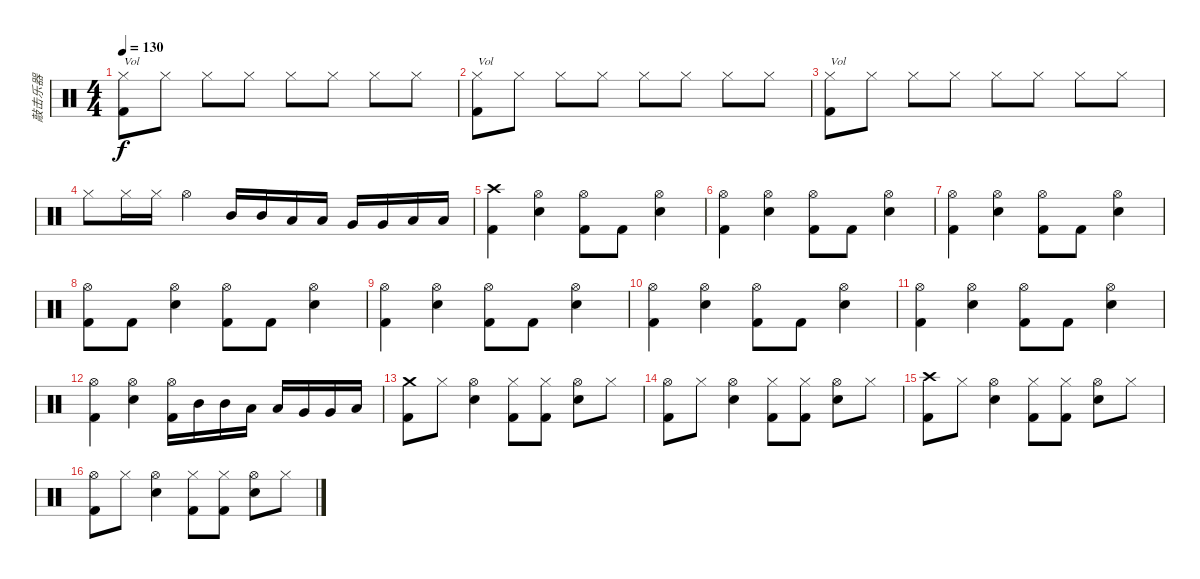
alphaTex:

\track ("敲击乐器" "敲击乐器") {instrument percussion}
\staff {score}
\articulation defaults
\ts (4 4)
\tempo 130
\clef neutral
\ks c
("Hi-Hat (closed)" "Kick (hit) 2").8{txt "Vol" dy f} "Hi-Hat (closed)".8 "Hi-Hat (closed)".8 "Hi-Hat (closed)".8 "Hi-Hat (closed)".8 "Hi-Hat (closed)".8 "Hi-Hat (closed)".8 "Hi-Hat (closed)".8 |
("Hi-Hat (closed)" "Kick (hit) 2").8{txt "Vol"} "Hi-Hat (closed)".8 "Hi-Hat (closed)".8 "Hi-Hat (closed)".8 "Hi-Hat (closed)".8 "Hi-Hat (closed)".8 "Hi-Hat (closed)".8 "Hi-Hat (closed)".8 |
("Hi-Hat (closed)" "Kick (hit) 2").8{txt "Vol"} "Hi-Hat (closed)".8 "Hi-Hat (closed)".8 "Hi-Hat (closed)".8 "Hi-Hat (closed)".8 "Hi-Hat (closed)".8 "Hi-Hat (closed)".8 "Hi-Hat (closed)".8 |
"Hi-Hat (closed)".8 "Hi-Hat (closed)".16 "Hi-Hat (closed)".16 "Hi-Hat (open)".4 "Mid Tom (hit)".16 "Mid Tom (hit)".16 "Low Tom (hit)".16 "Low Tom (hit)".16 "Very Low Tom (hit)".16 "Very Low Tom (hit)".16 "Low Floor Tom (hit)".16 "Low Floor Tom (hit)".16 |
("Crash high (hit)" "Kick (hit) 2").4 ("Electric Snare (hit)" "Hi-Hat (open)").4 ("Hi-Hat (open)" "Kick (hit) 2").8 "Kick (hit) 2".8 ("Electric Snare (hit)" "Hi-Hat (open)").4 |
("Hi-Hat (open)" "Kick (hit) 2").4 ("Electric Snare (hit)" "Hi-Hat (open)").4 ("Hi-Hat (open)" "Kick (hit) 2").8 "Kick (hit) 2".8 ("Electric Snare (hit)" "Hi-Hat (open)").4 |
("Hi-Hat (open)" "Kick (hit) 2").4 ("Electric Snare (hit)" "Hi-Hat (open)").4 ("Hi-Hat (open)" "Kick (hit) 2").8 "Kick (hit) 2".8 ("Electric Snare (hit)" "Hi-Hat (open)").4 |
("Hi-Hat (open)" "Kick (hit) 2").8 "Kick (hit) 2".8 ("Hi-Hat (open)" "Electric Snare (hit)").4 ("Hi-Hat (open)" "Kick (hit) 2").8 "Kick (hit) 2".8 ("Hi-Hat (open)" "Electric Snare (hit)").4 |
("Hi-Hat (open)" "Kick (hit) 2").4 ("Electric Snare (hit)" "Hi-Hat (open)").4 ("Hi-Hat (open)" "Kick (hit) 2").8 "Kick (hit) 2".8 ("Electric Snare (hit)" "Hi-Hat (open)").4 |
("Hi-Hat (open)" "Kick (hit) 2").4 ("Electric Snare (hit)" "Hi-Hat (open)").4 ("Hi-Hat (open)" "Kick (hit) 2").8 "Kick (hit) 2".8 ("Electric Snare (hit)" "Hi-Hat (open)").4 |
("Hi-Hat (open)" "Kick (hit) 2").4 ("Electric Snare (hit)" "Hi-Hat (open)").4 ("Hi-Hat (open)" "Kick (hit) 2").8 "Kick (hit) 2".8 ("Electric Snare (hit)" "Hi-Hat (open)").4 |
("Hi-Hat (open)" "Kick (hit) 2").4 ("Electric Snare (hit)" "Hi-Hat (open)").4 ("Hi-Hat (open)" "Kick (hit) 2").16 "Mid Tom (hit)".16 "Mid Tom (hit)".16 "Low Tom (hit)".16 "Low Tom (hit)".16 "Very Low Tom (hit)".16 "Very Low Tom (hit)".16 "Low Floor Tom (hit)".16 |
("Crash medium (hit)" "Kick (hit) 2").8 "Hi-Hat (closed)".8 ("Electric Snare (hit)" "Hi-Hat (open)").4 ("Hi-Hat (closed)" "Kick (hit) 2").8 ("Hi-Hat (closed)" "Kick (hit) 2").8 ("Hi-Hat (open)" "Electric Snare (hit)").8 "Hi-Hat (closed)".8 |
("Hi-Hat (open)" "Kick (hit) 2").8 "Hi-Hat (closed)".8 ("Electric Snare (hit)" "Hi-Hat (open)").4 ("Hi-Hat (closed)" "Kick (hit) 2").8 ("Hi-Hat (closed)" "Kick (hit) 2").8 ("Hi-Hat (open)" "Electric Snare (hit)").8 "Hi-Hat (closed)".8 |
("Crash high (hit)" "Kick (hit) 2").8 "Hi-Hat (closed)".8 ("Electric Snare (hit)" "Hi-Hat (open)").4 ("Hi-Hat (closed)" "Kick (hit) 2").8 ("Hi-Hat (closed)" "Kick (hit) 2").8 ("Hi-Hat (open)" "Electric Snare (hit)").8 "Hi-Hat (closed)".8 |
("Hi-Hat (open)" "Kick (hit) 2").8 "Hi-Hat (closed)".8 ("Electric Snare (hit)" "Hi-Hat (open)").4 ("Hi-Hat (closed)" "Kick (hit) 2").8 ("Hi-Hat (closed)" "Kick (hit) 2").8 ("Hi-Hat (open)" "Electric Snare (hit)").8 "Hi-Hat (closed)".8
